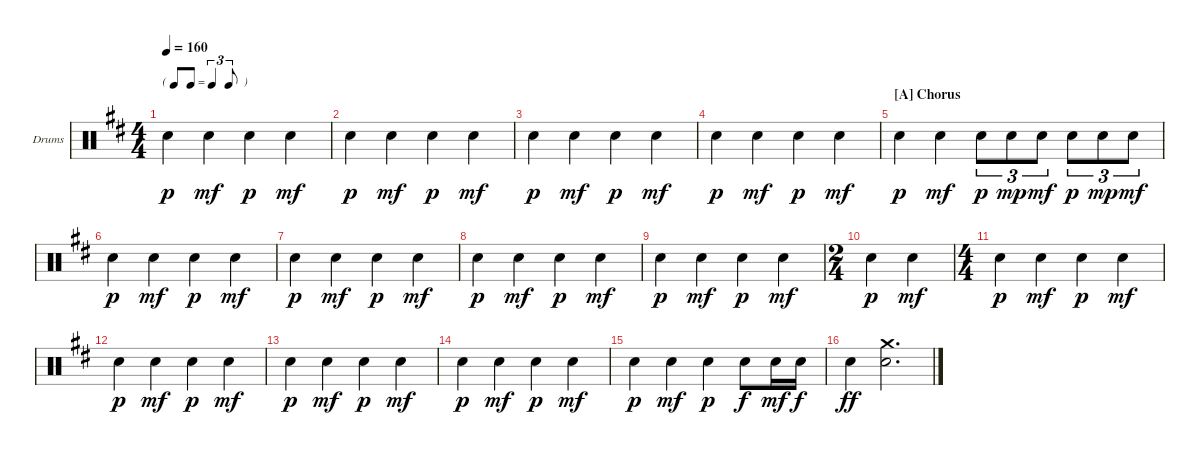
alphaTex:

\defaultSystemsLayout 4
\bracketExtendMode groupsimilarinstruments
\firstSystemTrackNameOrientation horizontal
\otherSystemsTrackNameOrientation horizontal
\track ("Hal Blaine" "Drums") {instrument percussion}
\staff {score}
\articulation defaults
\ts (4 4)
\tf triplet8th
\tempo 160
\clef neutral
\ks bminor "Snare (hit) 2".4{dy p} "Snare (hit) 2".4{dy mf} "Snare (hit) 2".4{dy p} "Snare (hit) 2".4{dy mf}
|
"Snare (hit) 2".4{dy p} "Snare (hit) 2".4{dy mf} "Snare (hit) 2".4{dy p} "Snare (hit) 2".4{dy mf} |
"Snare (hit) 2".4{dy p} "Snare (hit) 2".4{dy mf} "Snare (hit) 2".4{dy p} "Snare (hit) 2".4{dy mf} |
"Snare (hit) 2".4{dy p} "Snare (hit) 2".4{dy mf} "Snare (hit) 2".4{dy p} "Snare (hit) 2".4{dy mf} |
\section ("A" "Chorus")
"Snare (hit) 2".4{dy p} "Snare (hit) 2".4{dy mf} "Snare (hit) 2".8{tu (3 2) dy p} "Snare (hit) 2".8{tu (3 2) dy mp} "Snare (hit) 2".8{tu (3 2) dy mf} "Snare (hit) 2".8{tu (3 2) dy p} "Snare (hit) 2".8{tu (3 2) dy mp} "Snare (hit) 2".8{tu (3 2) dy mf} |
"Snare (hit) 2".4{dy p} "Snare (hit) 2".4{dy mf} "Snare (hit) 2".4{dy p} "Snare (hit) 2".4{dy mf} |
"Snare (hit) 2".4{dy p} "Snare (hit) 2".4{dy mf} "Snare (hit) 2".4{dy p} "Snare (hit) 2".4{dy mf} |
"Snare (hit) 2".4{dy p} "Snare (hit) 2".4{dy mf} "Snare (hit) 2".4{dy p} "Snare (hit) 2".4{dy mf} |
"Snare (hit) 2".4{dy p} "Snare (hit) 2".4{dy mf} "Snare (hit) 2".4{dy p} "Snare (hit) 2".4{dy mf} |
\ts (2 4)
"Snare (hit) 2".4{dy p} "Snare (hit) 2".4{dy mf} |
\ts (4 4)
"Snare (hit) 2".4{dy p} "Snare (hit) 2".4{dy mf} "Snare (hit) 2".4{dy p} "Snare (hit) 2".4{dy mf} |
"Snare (hit) 2".4{dy p} "Snare (hit) 2".4{dy mf} "Snare (hit) 2".4{dy p} "Snare (hit) 2".4{dy mf} |
"Snare (hit) 2".4{dy p} "Snare (hit) 2".4{dy mf} "Snare (hit) 2".4{dy p} "Snare (hit) 2".4{dy mf} |
"Snare (hit) 2".4{dy p} "Snare (hit) 2".4{dy mf} "Snare (hit) 2".4{dy p} "Snare (hit) 2".4{dy mf} |
"Snare (hit) 2".4{dy p} "Snare (hit) 2".4{dy mf} "Snare (hit) 2".4{dy p} "Snare (hit) 2".8{dy f} "Snare (hit) 2".16{dy mf} "Snare (hit) 2".16{dy f} |
"Snare (hit) 2".4{dy ff} ("Snare (hit) 2" "Crash medium (hit)").2{d}
